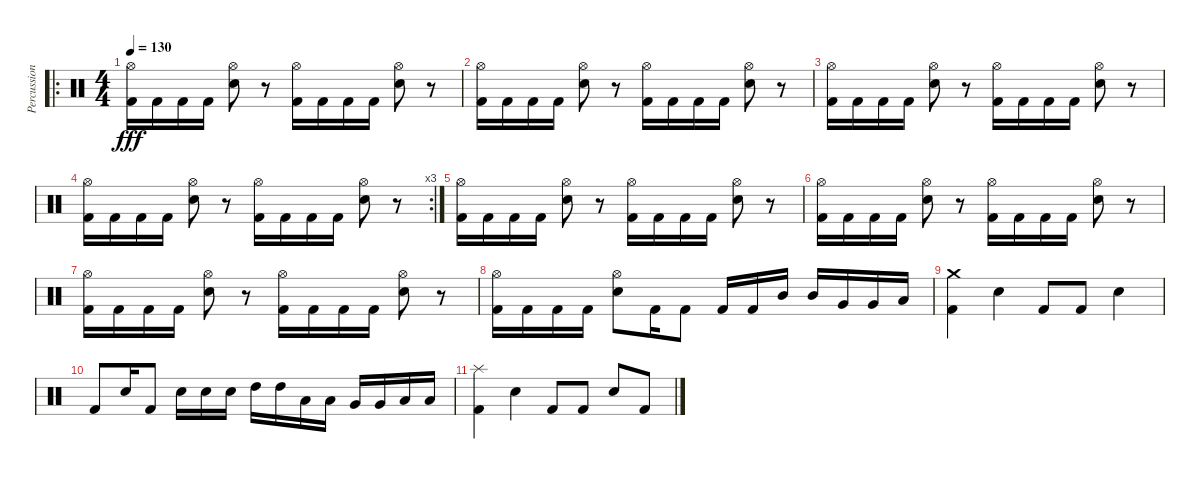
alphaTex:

\track ("Percussion" "Percussion") {instrument percussion}
\staff {score}
\articulation defaults
\ro
\ts (4 4)
\tempo 130
\clef neutral
\ks c
("Hi-Hat (open)" "Kick (hit) 2").16{dy fff} "Kick (hit) 2".16 "Kick (hit) 2".16 "Kick (hit) 2".16 ("Hi-Hat (open)" "Snare (hit) 2").8 r.8 ("Hi-Hat (open)" "Kick (hit) 2").16 "Kick (hit) 2".16 "Kick (hit) 2".16 "Kick (hit) 2".16 ("Hi-Hat (open)" "Snare (hit) 2").8 r.8 |
("Hi-Hat (open)" "Kick (hit) 2").16 "Kick (hit) 2".16 "Kick (hit) 2".16 "Kick (hit) 2".16 ("Hi-Hat (open)" "Snare (hit) 2").8 r.8 ("Hi-Hat (open)" "Kick (hit) 2").16 "Kick (hit) 2".16 "Kick (hit) 2".16 "Kick (hit) 2".16 ("Hi-Hat (open)" "Snare (hit) 2").8 r.8 |
("Hi-Hat (open)" "Kick (hit) 2").16 "Kick (hit) 2".16 "Kick (hit) 2".16 "Kick (hit) 2".16 ("Hi-Hat (open)" "Snare (hit) 2").8 r.8 ("Hi-Hat (open)" "Kick (hit) 2").16 "Kick (hit) 2".16 "Kick (hit) 2".16 "Kick (hit) 2".16 ("Hi-Hat (open)" "Snare (hit) 2").8 r.8 |
\rc 3
("Hi-Hat (open)" "Kick (hit) 2").16 "Kick (hit) 2".16 "Kick (hit) 2".16 "Kick (hit) 2".16 ("Hi-Hat (open)" "Snare (hit) 2").8 r.8 ("Hi-Hat (open)" "Kick (hit) 2").16 "Kick (hit) 2".16 "Kick (hit) 2".16 "Kick (hit) 2".16 ("Hi-Hat (open)" "Snare (hit) 2").8 r.8 |
("Hi-Hat (open)" "Kick (hit) 2").16 "Kick (hit) 2".16 "Kick (hit) 2".16 "Kick (hit) 2".16 ("Hi-Hat (open)" "Snare (hit) 2").8 r.8 ("Hi-Hat (open)" "Kick (hit) 2").16 "Kick (hit) 2".16 "Kick (hit) 2".16 "Kick (hit) 2".16 ("Hi-Hat (open)" "Snare (hit) 2").8 r.8 |
("Hi-Hat (open)" "Kick (hit) 2").16 "Kick (hit) 2".16 "Kick (hit) 2".16 "Kick (hit) 2".16 ("Hi-Hat (open)" "Snare (hit) 2").8 r.8 ("Hi-Hat (open)" "Kick (hit) 2").16 "Kick (hit) 2".16 "Kick (hit) 2".16 "Kick (hit) 2".16 ("Hi-Hat (open)" "Snare (hit) 2").8 r.8 |
("Hi-Hat (open)" "Kick (hit) 2").16 "Kick (hit) 2".16 "Kick (hit) 2".16 "Kick (hit) 2".16 ("Hi-Hat (open)" "Snare (hit) 2").8 r.8 ("Hi-Hat (open)" "Kick (hit) 2").16 "Kick (hit) 2".16 "Kick (hit) 2".16 "Kick (hit) 2".16 ("Hi-Hat (open)" "Snare (hit) 2").8 r.8 |
("Hi-Hat (open)" "Kick (hit) 2").16 "Kick (hit) 2".16 "Kick (hit) 2".16 "Kick (hit) 2".16 ("Hi-Hat (open)" "Snare (hit) 2").8 "Kick (hit) 2".16 "Kick (hit) 2".8 "Kick (hit) 2".16 "Kick (hit) 2".16 "Mid Tom (hit)".16 "Mid Tom (hit)".16 "Very Low Tom (hit)".16 "Very Low Tom (hit)".16 "Low Floor Tom (hit)".16 |
("Crash medium (hit)" "Kick (hit) 2").4 "Snare (hit) 2".4 "Kick (hit) 2".8 "Kick (hit) 2".8 "Snare (hit) 2".4 |
"Kick (hit) 2".8 "Snare (hit) 2".16 "Kick (hit) 2".8 "Snare (hit) 2".16 "Snare (hit) 2".16 "Snare (hit) 2".16 "High Tom (hit)".16 "High Tom (hit)".16 "Low Tom (hit)".16 "Low Tom (hit)".16 "Very Low Tom (hit)".16 "Very Low Tom (hit)".16 "Low Floor Tom (hit)".16 "Low Floor Tom (hit)".16 |
("Splash (hit)" "Kick (hit) 2").4 "Snare (hit) 2".4 "Kick (hit) 2".8 "Kick (hit) 2".8 "Snare (hit) 2".8 "Kick (hit) 2".8
